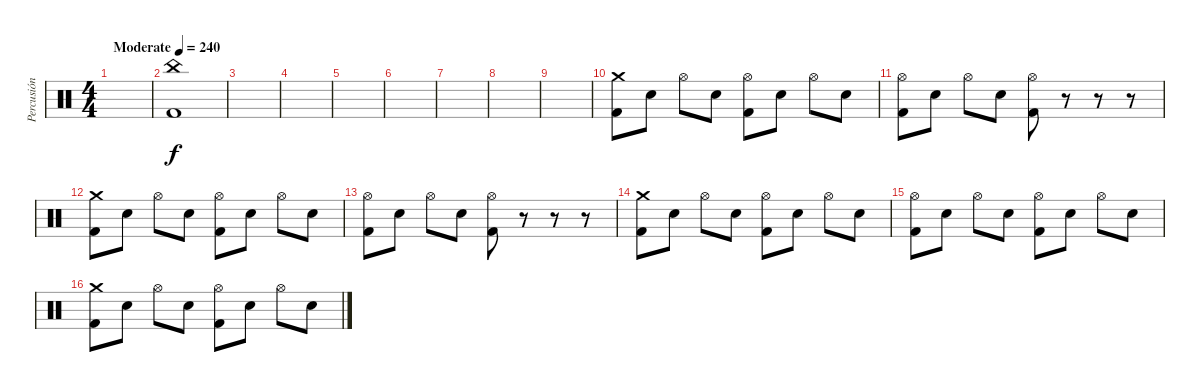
\track ("Percusión" "Percusión") {instrument percussion}
\staff {score}
\articulation defaults
\ts (4 4)
\tempo (240 "Moderate")
\clef neutral
\ks c
|
("China (hit)" "Kick (hit) 2").1 |
|
|
|
|
|
|
|
("Crash medium (hit)" "Kick (hit) 2").8 "Electric Snare (hit)".8 "Hi-Hat (open)".8 "Electric Snare (hit)".8 ("Hi-Hat (open)" "Kick (hit) 2").8 "Electric Snare (hit)".8 "Hi-Hat (open)".8 "Electric Snare (hit)".8 |
("Hi-Hat (open)" "Kick (hit) 2").8 "Electric Snare (hit)".8 "Hi-Hat (open)".8 "Electric Snare (hit)".8 ("Hi-Hat (open)" "Kick (hit) 2").8 r.8 r.8 r.8 |
("Crash medium (hit)" "Kick (hit) 2").8 "Electric Snare (hit)".8 "Hi-Hat (open)".8 "Electric Snare (hit)".8 ("Hi-Hat (open)" "Kick (hit) 2").8 "Electric Snare (hit)".8 "Hi-Hat (open)".8 "Electric Snare (hit)".8 |
("Hi-Hat (open)" "Kick (hit) 2").8 "Electric Snare (hit)".8 "Hi-Hat (open)".8 "Electric Snare (hit)".8 ("Hi-Hat (open)" "Kick (hit) 2").8 r.8 r.8 r.8 |
("Crash medium (hit)" "Kick (hit) 2").8 "Electric Snare (hit)".8 "Hi-Hat (open)".8 "Electric Snare (hit)".8 ("Hi-Hat (open)" "Kick (hit) 2").8 "Electric Snare (hit)".8 "Hi-Hat (open)".8 "Electric Snare (hit)".8 |
("Hi-Hat (open)" "Kick (hit) 2").8 "Electric Snare (hit)".8 "Hi-Hat (open)".8 "Electric Snare (hit)".8 ("Hi-Hat (open)" "Kick (hit) 2").8 "Electric Snare (hit)".8 "Hi-Hat (open)".8 "Electric Snare (hit)".8 |
("Crash medium (hit)" "Kick (hit) 2").8 "Electric Snare (hit)".8 "Hi-Hat (open)".8 "Electric Snare (hit)".8 ("Hi-Hat (open)" "Kick (hit) 2").8 "Electric Snare (hit)".8 "Hi-Hat (open)".8 "Electric Snare (hit)".8
